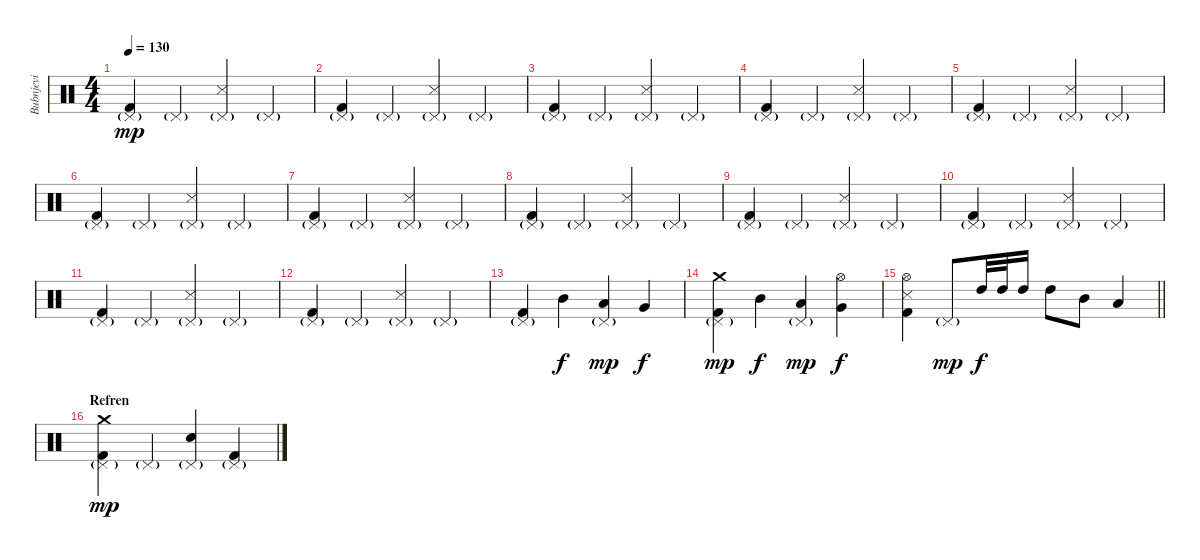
\track ("Bubnjevi" "Bubnjevi") {instrument percussion}
\staff {score}
\articulation defaults
\ts (4 4)
\tempo 130
\clef neutral
\ks c
("Pedal Hi-Hat (hit)"{g} "Kick (hit) 2").4{dy mp} "Pedal Hi-Hat (hit)"{g}.4 ("Pedal Hi-Hat (hit)"{g} "Snare (side stick) 3").4 "Pedal Hi-Hat (hit)"{g}.4 |
("Pedal Hi-Hat (hit)"{g} "Kick (hit) 2").4 "Pedal Hi-Hat (hit)"{g}.4 ("Pedal Hi-Hat (hit)"{g} "Snare (side stick) 3").4 "Pedal Hi-Hat (hit)"{g}.4 |
("Pedal Hi-Hat (hit)"{g} "Kick (hit) 2").4 "Pedal Hi-Hat (hit)"{g}.4 ("Pedal Hi-Hat (hit)"{g} "Snare (side stick) 3").4 "Pedal Hi-Hat (hit)"{g}.4 |
("Pedal Hi-Hat (hit)"{g} "Kick (hit) 2").4 "Pedal Hi-Hat (hit)"{g}.4 ("Pedal Hi-Hat (hit)"{g} "Snare (side stick) 3").4 "Pedal Hi-Hat (hit)"{g}.4 |
("Pedal Hi-Hat (hit)"{g} "Kick (hit) 2").4 "Pedal Hi-Hat (hit)"{g}.4 ("Pedal Hi-Hat (hit)"{g} "Snare (side stick) 3").4 "Pedal Hi-Hat (hit)"{g}.4 |
("Pedal Hi-Hat (hit)"{g} "Kick (hit) 2").4 "Pedal Hi-Hat (hit)"{g}.4 ("Pedal Hi-Hat (hit)"{g} "Snare (side stick) 3").4 "Pedal Hi-Hat (hit)"{g}.4 |
("Pedal Hi-Hat (hit)"{g} "Kick (hit) 2").4 "Pedal Hi-Hat (hit)"{g}.4 ("Pedal Hi-Hat (hit)"{g} "Snare (side stick) 3").4 "Pedal Hi-Hat (hit)"{g}.4 |
("Pedal Hi-Hat (hit)"{g} "Kick (hit) 2").4 "Pedal Hi-Hat (hit)"{g}.4 ("Pedal Hi-Hat (hit)"{g} "Snare (side stick) 3").4 "Pedal Hi-Hat (hit)"{g}.4 |
("Pedal Hi-Hat (hit)"{g} "Kick (hit) 2").4 "Pedal Hi-Hat (hit)"{g}.4 ("Pedal Hi-Hat (hit)"{g} "Snare (side stick) 3").4 "Pedal Hi-Hat (hit)"{g}.4 |
("Pedal Hi-Hat (hit)"{g} "Kick (hit) 2").4 "Pedal Hi-Hat (hit)"{g}.4 ("Pedal Hi-Hat (hit)"{g} "Snare (side stick) 3").4 "Pedal Hi-Hat (hit)"{g}.4 |
("Pedal Hi-Hat (hit)"{g} "Kick (hit) 2").4 "Pedal Hi-Hat (hit)"{g}.4 ("Pedal Hi-Hat (hit)"{g} "Snare (side stick) 3").4 "Pedal Hi-Hat (hit)"{g}.4 |
("Pedal Hi-Hat (hit)"{g} "Kick (hit) 2").4 "Pedal Hi-Hat (hit)"{g}.4 ("Pedal Hi-Hat (hit)"{g} "Snare (side stick) 3").4 "Pedal Hi-Hat (hit)"{g}.4 |
("Pedal Hi-Hat (hit)"{g} "Kick (hit) 2").4 "Mid Tom (hit)".4{dy f} ("Pedal Hi-Hat (hit)"{g} "Low Tom (hit)").4{dy mp} "Very Low Tom (hit)".4{dy f} |
("Crash medium (hit)" "Pedal Hi-Hat (hit)"{g} "Kick (hit) 2").4{dy mp} "Mid Tom (hit)".4{dy f} ("Pedal Hi-Hat (hit)"{g} "Low Tom (hit)").4{dy mp} ("Hi-Hat (open)" "Very Low Tom (hit)").4{dy f} |
\barLineRight lightlight
("Hi-Hat (open)" "Snare (side stick) 3" "Kick (hit) 2").4 "Pedal Hi-Hat (hit)"{g}.8{dy mp} "High Tom (hit)".32{dy f} "High Tom (hit)".32 "High Tom (hit)".16 "High Tom (hit)".8 "Mid Tom (hit)".8 "Low Tom (hit)".4 |
\section ("" "Refren")
("Crash medium (hit)" "Pedal Hi-Hat (hit)"{g} "Kick (hit) 2").4{dy mp} "Pedal Hi-Hat (hit)"{g}.4 ("Pedal Hi-Hat (hit)"{g} "Electric Snare (hit)").4 ("Pedal Hi-Hat (hit)"{g} "Kick (hit) 2").4
